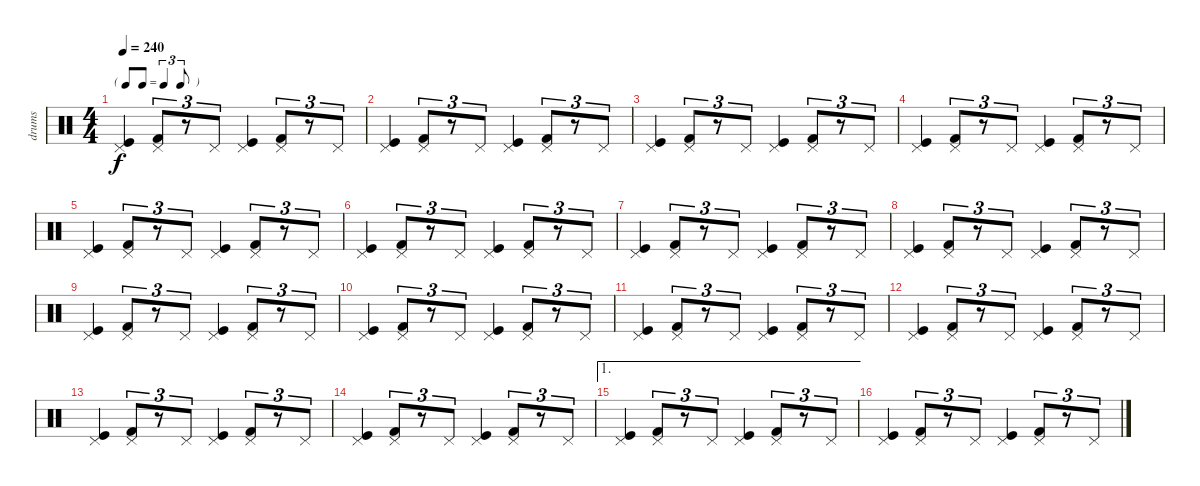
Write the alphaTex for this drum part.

\track ("drums" "drums") {instrument percussion}
\staff {score}
\articulation defaults
\ts (4 4)
\tf triplet8th
\tempo 240
\clef neutral
\ks c
("Pedal Hi-Hat (hit)" "Kick (hit)").4{dy f} ("Pedal Hi-Hat (hit)" "Kick (hit) 2").8{tu (3 2)} r.8{tu (3 2)} "Pedal Hi-Hat (hit)".8{tu (3 2)} ("Pedal Hi-Hat (hit)" "Kick (hit)").4 ("Pedal Hi-Hat (hit)" "Kick (hit) 2").8{tu (3 2)} r.8{tu (3 2)} "Pedal Hi-Hat (hit)".8{tu (3 2)} |
("Pedal Hi-Hat (hit)" "Kick (hit)").4 ("Pedal Hi-Hat (hit)" "Kick (hit) 2").8{tu (3 2)} r.8{tu (3 2)} "Pedal Hi-Hat (hit)".8{tu (3 2)} ("Pedal Hi-Hat (hit)" "Kick (hit)").4 ("Pedal Hi-Hat (hit)" "Kick (hit) 2").8{tu (3 2)} r.8{tu (3 2)} "Pedal Hi-Hat (hit)".8{tu (3 2)} |
("Pedal Hi-Hat (hit)" "Kick (hit)").4 ("Pedal Hi-Hat (hit)" "Kick (hit) 2").8{tu (3 2)} r.8{tu (3 2)} "Pedal Hi-Hat (hit)".8{tu (3 2)} ("Pedal Hi-Hat (hit)" "Kick (hit)").4 ("Pedal Hi-Hat (hit)" "Kick (hit) 2").8{tu (3 2)} r.8{tu (3 2)} "Pedal Hi-Hat (hit)".8{tu (3 2)} |
("Pedal Hi-Hat (hit)" "Kick (hit)").4 ("Pedal Hi-Hat (hit)" "Kick (hit) 2").8{tu (3 2)} r.8{tu (3 2)} "Pedal Hi-Hat (hit)".8{tu (3 2)} ("Pedal Hi-Hat (hit)" "Kick (hit)").4 ("Pedal Hi-Hat (hit)" "Kick (hit) 2").8{tu (3 2)} r.8{tu (3 2)} "Pedal Hi-Hat (hit)".8{tu (3 2)} |
("Pedal Hi-Hat (hit)" "Kick (hit)").4 ("Pedal Hi-Hat (hit)" "Kick (hit) 2").8{tu (3 2)} r.8{tu (3 2)} "Pedal Hi-Hat (hit)".8{tu (3 2)} ("Pedal Hi-Hat (hit)" "Kick (hit)").4 ("Pedal Hi-Hat (hit)" "Kick (hit) 2").8{tu (3 2)} r.8{tu (3 2)} "Pedal Hi-Hat (hit)".8{tu (3 2)} |
("Pedal Hi-Hat (hit)" "Kick (hit)").4 ("Pedal Hi-Hat (hit)" "Kick (hit) 2").8{tu (3 2)} r.8{tu (3 2)} "Pedal Hi-Hat (hit)".8{tu (3 2)} ("Pedal Hi-Hat (hit)" "Kick (hit)").4 ("Pedal Hi-Hat (hit)" "Kick (hit) 2").8{tu (3 2)} r.8{tu (3 2)} "Pedal Hi-Hat (hit)".8{tu (3 2)} |
("Pedal Hi-Hat (hit)" "Kick (hit)").4 ("Pedal Hi-Hat (hit)" "Kick (hit) 2").8{tu (3 2)} r.8{tu (3 2)} "Pedal Hi-Hat (hit)".8{tu (3 2)} ("Pedal Hi-Hat (hit)" "Kick (hit)").4 ("Pedal Hi-Hat (hit)" "Kick (hit) 2").8{tu (3 2)} r.8{tu (3 2)} "Pedal Hi-Hat (hit)".8{tu (3 2)} |
("Pedal Hi-Hat (hit)" "Kick (hit)").4 ("Pedal Hi-Hat (hit)" "Kick (hit) 2").8{tu (3 2)} r.8{tu (3 2)} "Pedal Hi-Hat (hit)".8{tu (3 2)} ("Pedal Hi-Hat (hit)" "Kick (hit)").4 ("Pedal Hi-Hat (hit)" "Kick (hit) 2").8{tu (3 2)} r.8{tu (3 2)} "Pedal Hi-Hat (hit)".8{tu (3 2)} |
("Pedal Hi-Hat (hit)" "Kick (hit)").4 ("Pedal Hi-Hat (hit)" "Kick (hit) 2").8{tu (3 2)} r.8{tu (3 2)} "Pedal Hi-Hat (hit)".8{tu (3 2)} ("Pedal Hi-Hat (hit)" "Kick (hit)").4 ("Pedal Hi-Hat (hit)" "Kick (hit) 2").8{tu (3 2)} r.8{tu (3 2)} "Pedal Hi-Hat (hit)".8{tu (3 2)} |
("Pedal Hi-Hat (hit)" "Kick (hit)").4 ("Pedal Hi-Hat (hit)" "Kick (hit) 2").8{tu (3 2)} r.8{tu (3 2)} "Pedal Hi-Hat (hit)".8{tu (3 2)} ("Pedal Hi-Hat (hit)" "Kick (hit)").4 ("Pedal Hi-Hat (hit)" "Kick (hit) 2").8{tu (3 2)} r.8{tu (3 2)} "Pedal Hi-Hat (hit)".8{tu (3 2)} |
("Pedal Hi-Hat (hit)" "Kick (hit)").4 ("Pedal Hi-Hat (hit)" "Kick (hit) 2").8{tu (3 2)} r.8{tu (3 2)} "Pedal Hi-Hat (hit)".8{tu (3 2)} ("Pedal Hi-Hat (hit)" "Kick (hit)").4 ("Pedal Hi-Hat (hit)" "Kick (hit) 2").8{tu (3 2)} r.8{tu (3 2)} "Pedal Hi-Hat (hit)".8{tu (3 2)} |
("Pedal Hi-Hat (hit)" "Kick (hit)").4 ("Pedal Hi-Hat (hit)" "Kick (hit) 2").8{tu (3 2)} r.8{tu (3 2)} "Pedal Hi-Hat (hit)".8{tu (3 2)} ("Pedal Hi-Hat (hit)" "Kick (hit)").4 ("Pedal Hi-Hat (hit)" "Kick (hit) 2").8{tu (3 2)} r.8{tu (3 2)} "Pedal Hi-Hat (hit)".8{tu (3 2)} |
("Pedal Hi-Hat (hit)" "Kick (hit)").4 ("Pedal Hi-Hat (hit)" "Kick (hit) 2").8{tu (3 2)} r.8{tu (3 2)} "Pedal Hi-Hat (hit)".8{tu (3 2)} ("Pedal Hi-Hat (hit)" "Kick (hit)").4 ("Pedal Hi-Hat (hit)" "Kick (hit) 2").8{tu (3 2)} r.8{tu (3 2)} "Pedal Hi-Hat (hit)".8{tu (3 2)} |
("Pedal Hi-Hat (hit)" "Kick (hit)").4 ("Pedal Hi-Hat (hit)" "Kick (hit) 2").8{tu (3 2)} r.8{tu (3 2)} "Pedal Hi-Hat (hit)".8{tu (3 2)} ("Pedal Hi-Hat (hit)" "Kick (hit)").4 ("Pedal Hi-Hat (hit)" "Kick (hit) 2").8{tu (3 2)} r.8{tu (3 2)} "Pedal Hi-Hat (hit)".8{tu (3 2)} |
\ae 1
("Pedal Hi-Hat (hit)" "Kick (hit)").4 ("Pedal Hi-Hat (hit)" "Kick (hit) 2").8{tu (3 2)} r.8{tu (3 2)} "Pedal Hi-Hat (hit)".8{tu (3 2)} ("Pedal Hi-Hat (hit)" "Kick (hit)").4 ("Pedal Hi-Hat (hit)" "Kick (hit) 2").8{tu (3 2)} r.8{tu (3 2)} "Pedal Hi-Hat (hit)".8{tu (3 2)} |
("Pedal Hi-Hat (hit)" "Kick (hit)").4 ("Pedal Hi-Hat (hit)" "Kick (hit) 2").8{tu (3 2)} r.8{tu (3 2)} "Pedal Hi-Hat (hit)".8{tu (3 2)} ("Pedal Hi-Hat (hit)" "Kick (hit)").4 ("Pedal Hi-Hat (hit)" "Kick (hit) 2").8{tu (3 2)} r.8{tu (3 2)} "Pedal Hi-Hat (hit)".8{tu (3 2)}
